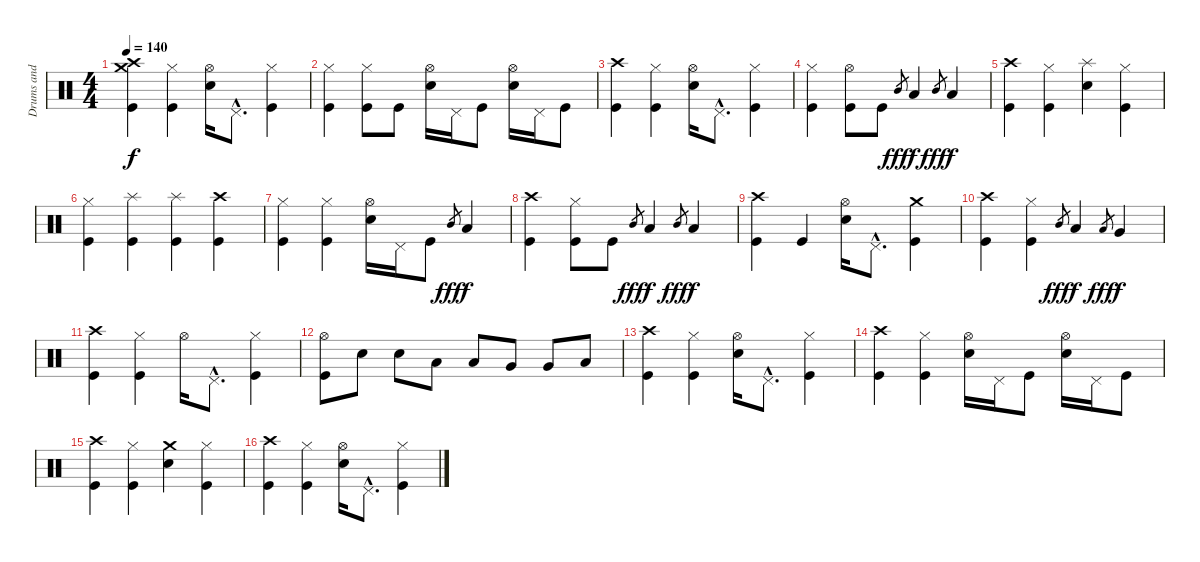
\track ("Drums and percussion" "Drums and ") {instrument percussion}
\staff {score}
\articulation defaults
\ts (4 4)
\tempo 140
\clef neutral
\ks c
("Crash high (hit)" "Crash medium (hit)" "Kick (hit)").4{dy f balance 8} ("Hi-Hat (closed)" "Kick (hit)").4 ("Hi-Hat (open)" "Electric Snare (hit)").16 "Pedal Hi-Hat (hit)"{hac}.8{d} ("Hi-Hat (closed)" "Kick (hit)").4 |
("Hi-Hat (closed)" "Kick (hit)").4 ("Hi-Hat (closed)" "Kick (hit)").8 "Kick (hit)".8 ("Hi-Hat (open)" "Electric Snare (hit)").16 "Pedal Hi-Hat (hit)".16 "Kick (hit)".8 ("Hi-Hat (open)" "Electric Snare (hit)").16 "Pedal Hi-Hat (hit)".16 "Kick (hit)".8 |
("Crash high (hit)" "Kick (hit)").4 ("Hi-Hat (closed)" "Kick (hit)").4 ("Hi-Hat (open)" "Electric Snare (hit)").16 "Pedal Hi-Hat (hit)"{hac}.8{d} ("Hi-Hat (closed)" "Kick (hit)").4 |
("Hi-Hat (closed)" "Kick (hit)").4 ("Hi-Hat (open)" "Kick (hit)").8 "Kick (hit)".8 "Mid Tom (hit)".8{gr dy fff} "Low Tom (hit)".4{dy f} "Mid Tom (hit)".8{gr dy fff} "Low Tom (hit)".4{dy f} |
("Crash high (hit)" "Kick (hit)").4 ("Hi-Hat (closed)" "Kick (hit)").4 ("Splash (hit)" "Electric Snare (hit)").4 ("Hi-Hat (closed)" "Kick (hit)").4 |
("Hi-Hat (closed)" "Kick (hit)").4 ("Splash (hit)" "Kick (hit)").4 ("Splash (hit)" "Kick (hit)").4 ("Crash high (hit)" "Kick (hit)").4 |
("Hi-Hat (closed)" "Kick (hit)").4 ("Hi-Hat (closed)" "Kick (hit)").4 ("Hi-Hat (open)" "Electric Snare (hit)").16 "Pedal Hi-Hat (hit)".16 "Kick (hit)".8 "Mid Tom (hit)".8{gr dy fff} "Low Tom (hit)".4{dy f} |
("Crash high (hit)" "Kick (hit)").4 ("Hi-Hat (closed)" "Kick (hit)").8 "Kick (hit)".8 "Mid Tom (hit)".8{gr dy fff} "Low Tom (hit)".4{dy f} "Mid Tom (hit)".8{gr dy fff} "Low Tom (hit)".4{dy f} |
("Crash high (hit)" "Kick (hit)").4 "Kick (hit)".4 ("Hi-Hat (open)" "Electric Snare (hit)").16 "Pedal Hi-Hat (hit)"{hac}.8{d} ("Crash medium (hit)" "Kick (hit)").4 |
("Crash high (hit)" "Kick (hit)").4 ("Hi-Hat (closed)" "Kick (hit)").4 "Mid Tom (hit)".8{gr dy fff} "Low Tom (hit)".4{dy f} "Low Tom (hit)".8{gr dy fff} "Very Low Tom (hit)".4{dy f} |
("Crash high (hit)" "Kick (hit)").4 ("Hi-Hat (closed)" "Kick (hit)").4 "Hi-Hat (open)".16 "Pedal Hi-Hat (hit)"{hac}.8{d} ("Hi-Hat (closed)" "Kick (hit)").4 |
("Hi-Hat (open)" "Kick (hit)").8 "Electric Snare (hit)".8 "Electric Snare (hit)".8 "Low Tom (hit)".8 "Low Tom (hit)".8 "Very Low Tom (hit)".8 "Very Low Tom (hit)".8 "Low Floor Tom (hit)".8 |
("Crash high (hit)" "Kick (hit)").4 ("Hi-Hat (closed)" "Kick (hit)").4 ("Hi-Hat (open)" "Electric Snare (hit)").16 "Pedal Hi-Hat (hit)"{hac}.8{d} ("Hi-Hat (closed)" "Kick (hit)").4 |
("Crash high (hit)" "Kick (hit)").4 ("Hi-Hat (closed)" "Kick (hit)").4 ("Hi-Hat (open)" "Electric Snare (hit)").16 "Pedal Hi-Hat (hit)".16 "Kick (hit)".8 ("Hi-Hat (open)" "Electric Snare (hit)").16 "Pedal Hi-Hat (hit)".16 "Kick (hit)".8 |
("Crash high (hit)" "Kick (hit)").4 ("Hi-Hat (closed)" "Kick (hit)").4 ("Crash medium (hit)" "Electric Snare (hit)").4 ("Hi-Hat (closed)" "Kick (hit)").4 |
("Crash high (hit)" "Kick (hit)").4 ("Hi-Hat (closed)" "Kick (hit)").4 ("Hi-Hat (open)" "Electric Snare (hit)").16 "Pedal Hi-Hat (hit)"{hac}.8{d} ("Hi-Hat (closed)" "Kick (hit)").4
